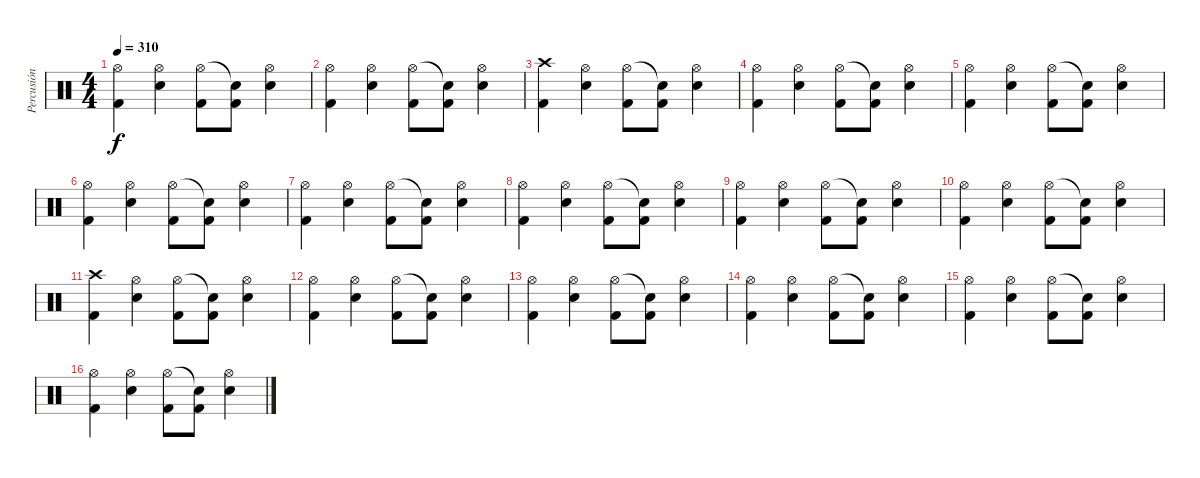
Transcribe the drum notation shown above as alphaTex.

\track ("Percusión" "Percusión") {instrument percussion}
\staff {score}
\articulation defaults
\ts (4 4)
\tempo 310
\clef neutral
\ks c
("Hi-Hat (open)" "Kick (hit) 2").4{dy f} ("Hi-Hat (open)" "Snare (hit) 2").4 ("Hi-Hat (open)" "Kick (hit) 2").8 ("Snare (hit)"{t} "Kick (hit) 2").8 ("Hi-Hat (open)" "Snare (hit) 2").4 |
("Hi-Hat (open)" "Kick (hit) 2").4 ("Hi-Hat (open)" "Snare (hit) 2").4 ("Hi-Hat (open)" "Kick (hit) 2").8 ("Snare (hit)"{t} "Kick (hit) 2").8 ("Hi-Hat (open)" "Snare (hit) 2").4 |
("Crash high (hit)" "Kick (hit) 2").4 ("Hi-Hat (open)" "Snare (hit) 2").4 ("Hi-Hat (open)" "Kick (hit) 2").8 ("Snare (hit)"{t} "Kick (hit) 2").8 ("Hi-Hat (open)" "Snare (hit) 2").4 |
("Hi-Hat (open)" "Kick (hit) 2").4 ("Hi-Hat (open)" "Snare (hit) 2").4 ("Hi-Hat (open)" "Kick (hit) 2").8 ("Snare (hit)"{t} "Kick (hit) 2").8 ("Hi-Hat (open)" "Snare (hit) 2").4 |
("Hi-Hat (open)" "Kick (hit) 2").4 ("Hi-Hat (open)" "Snare (hit) 2").4 ("Hi-Hat (open)" "Kick (hit) 2").8 ("Snare (hit)"{t} "Kick (hit) 2").8 ("Hi-Hat (open)" "Snare (hit) 2").4 |
("Hi-Hat (open)" "Kick (hit) 2").4 ("Hi-Hat (open)" "Snare (hit) 2").4 ("Hi-Hat (open)" "Kick (hit) 2").8 ("Snare (hit)"{t} "Kick (hit) 2").8 ("Hi-Hat (open)" "Snare (hit) 2").4 |
("Hi-Hat (open)" "Kick (hit) 2").4 ("Hi-Hat (open)" "Snare (hit) 2").4 ("Hi-Hat (open)" "Kick (hit) 2").8 ("Snare (hit)"{t} "Kick (hit) 2").8 ("Hi-Hat (open)" "Snare (hit) 2").4 |
("Hi-Hat (open)" "Kick (hit) 2").4 ("Hi-Hat (open)" "Snare (hit) 2").4 ("Hi-Hat (open)" "Kick (hit) 2").8 ("Snare (hit)"{t} "Kick (hit) 2").8 ("Hi-Hat (open)" "Snare (hit) 2").4 |
("Hi-Hat (open)" "Kick (hit) 2").4 ("Hi-Hat (open)" "Snare (hit) 2").4 ("Hi-Hat (open)" "Kick (hit) 2").8 ("Snare (hit)"{t} "Kick (hit) 2").8 ("Hi-Hat (open)" "Snare (hit) 2").4 |
("Hi-Hat (open)" "Kick (hit) 2").4 ("Hi-Hat (open)" "Snare (hit) 2").4 ("Hi-Hat (open)" "Kick (hit) 2").8 ("Snare (hit)"{t} "Kick (hit) 2").8 ("Hi-Hat (open)" "Snare (hit) 2").4 |
("Crash high (hit)" "Kick (hit) 2").4 ("Hi-Hat (open)" "Snare (hit) 2").4 ("Hi-Hat (open)" "Kick (hit) 2").8 ("Snare (hit)"{t} "Kick (hit) 2").8 ("Hi-Hat (open)" "Snare (hit) 2").4 |
("Hi-Hat (open)" "Kick (hit) 2").4 ("Hi-Hat (open)" "Snare (hit) 2").4 ("Hi-Hat (open)" "Kick (hit) 2").8 ("Snare (hit)"{t} "Kick (hit) 2").8 ("Hi-Hat (open)" "Snare (hit) 2").4 |
("Hi-Hat (open)" "Kick (hit) 2").4 ("Hi-Hat (open)" "Snare (hit) 2").4 ("Hi-Hat (open)" "Kick (hit) 2").8 ("Snare (hit)"{t} "Kick (hit) 2").8 ("Hi-Hat (open)" "Snare (hit) 2").4 |
("Hi-Hat (open)" "Kick (hit) 2").4 ("Hi-Hat (open)" "Snare (hit) 2").4 ("Hi-Hat (open)" "Kick (hit) 2").8 ("Snare (hit)"{t} "Kick (hit) 2").8 ("Hi-Hat (open)" "Snare (hit) 2").4 |
("Hi-Hat (open)" "Kick (hit) 2").4 ("Hi-Hat (open)" "Snare (hit) 2").4 ("Hi-Hat (open)" "Kick (hit) 2").8 ("Snare (hit)"{t} "Kick (hit) 2").8 ("Hi-Hat (open)" "Snare (hit) 2").4 |
("Hi-Hat (open)" "Kick (hit) 2").4 ("Hi-Hat (open)" "Snare (hit) 2").4 ("Hi-Hat (open)" "Kick (hit) 2").8 ("Snare (hit)"{t} "Kick (hit) 2").8 ("Hi-Hat (open)" "Snare (hit) 2").4
